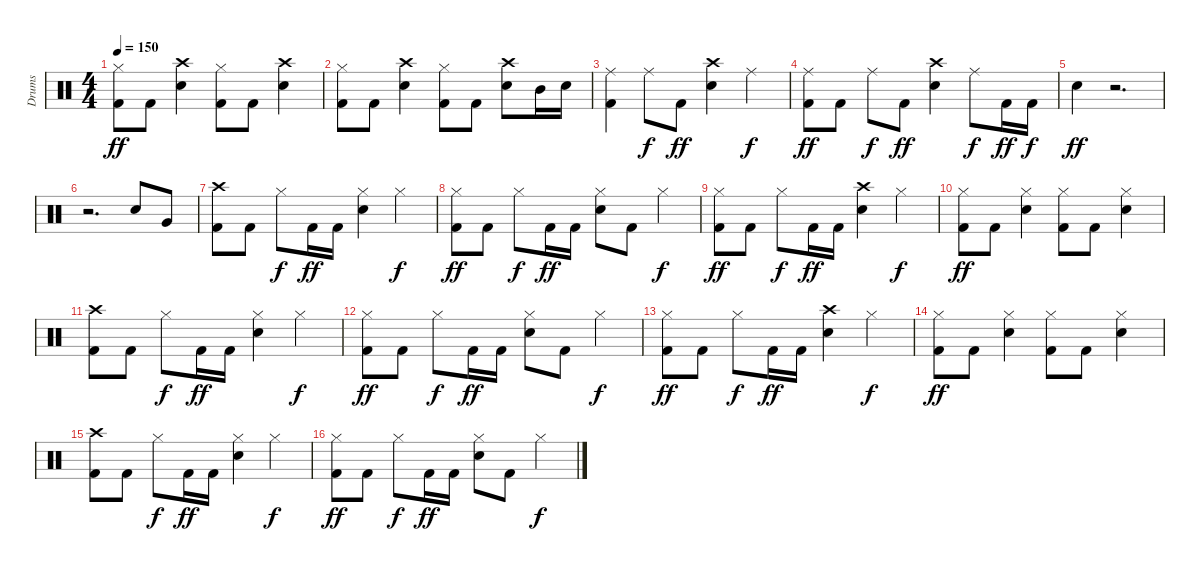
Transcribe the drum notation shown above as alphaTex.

\track ("Drums" "Drums") {instrument percussion}
\staff {score}
\articulation defaults
\ts (4 4)
\tempo 150
\clef neutral
\ks c
("Hi-Hat (closed)" "Kick (hit) 2").8{dy ff} "Kick (hit) 2".8 ("Crash high (hit)" "Snare (hit) 2").4 ("Hi-Hat (closed)" "Kick (hit) 2").8 "Kick (hit) 2".8 ("Crash high (hit)" "Snare (hit) 2").4 |
("Hi-Hat (closed)" "Kick (hit) 2").8 "Kick (hit) 2".8 ("Crash high (hit)" "Snare (hit) 2").4 ("Hi-Hat (closed)" "Kick (hit) 2").8 "Kick (hit) 2".8 ("Crash high (hit)" "Snare (hit) 2").8 "Mid Tom (hit)".16 "Snare (hit) 2".16 |
("Ride (middle)" "Kick (hit) 2").4 "Ride (middle)".8{dy f} "Kick (hit) 2".8{dy ff} ("Crash high (hit)" "Snare (hit) 2").4 "Ride (middle)".4{dy f} |
("Kick (hit) 2" "Ride (middle)").8{dy ff} "Kick (hit) 2".8 "Ride (middle)".8{dy f} "Kick (hit) 2".8{dy ff} ("Crash high (hit)" "Snare (hit) 2").4 "Ride (middle)".8{dy f} "Kick (hit) 2".16{dy ff} "Kick (hit) 2".16{dy f} |
"Snare (hit) 2".4{dy ff} r.2{d} |
r.2{d} "Snare (hit) 2".8 "Very Low Tom (hit)".8 |
("Crash high (hit)" "Kick (hit) 2").8 "Kick (hit) 2".8 "Hi-Hat (closed)".8{dy f} "Kick (hit) 2".16{dy ff} "Kick (hit) 2".16 ("Hi-Hat (closed)" "Snare (hit) 2").4 "Hi-Hat (closed)".4{dy f} |
("Hi-Hat (closed)" "Kick (hit) 2").8{dy ff} "Kick (hit) 2".8 "Hi-Hat (closed)".8{dy f} "Kick (hit) 2".16{dy ff} "Kick (hit) 2".16 ("Hi-Hat (closed)" "Snare (hit) 2").8 "Kick (hit) 2".8 "Hi-Hat (closed)".4{dy f} |
("Hi-Hat (closed)" "Kick (hit) 2").8{dy ff} "Kick (hit) 2".8 "Hi-Hat (closed)".8{dy f} "Kick (hit) 2".16{dy ff} "Kick (hit) 2".16 ("Crash high (hit)" "Snare (hit) 2").4 "Hi-Hat (closed)".4{dy f} |
("Hi-Hat (closed)" "Kick (hit) 2").8{dy ff} "Kick (hit) 2".8 ("Snare (hit) 2" "Hi-Hat (closed)").4 ("Hi-Hat (closed)" "Kick (hit) 2").8 "Kick (hit) 2".8 ("Snare (hit) 2" "Hi-Hat (closed)").4 |
("Crash high (hit)" "Kick (hit) 2").8 "Kick (hit) 2".8 "Hi-Hat (closed)".8{dy f} "Kick (hit) 2".16{dy ff} "Kick (hit) 2".16 ("Hi-Hat (closed)" "Snare (hit) 2").4 "Hi-Hat (closed)".4{dy f} |
("Hi-Hat (closed)" "Kick (hit) 2").8{dy ff} "Kick (hit) 2".8 "Hi-Hat (closed)".8{dy f} "Kick (hit) 2".16{dy ff} "Kick (hit) 2".16 ("Hi-Hat (closed)" "Snare (hit) 2").8 "Kick (hit) 2".8 "Hi-Hat (closed)".4{dy f} |
("Hi-Hat (closed)" "Kick (hit) 2").8{dy ff} "Kick (hit) 2".8 "Hi-Hat (closed)".8{dy f} "Kick (hit) 2".16{dy ff} "Kick (hit) 2".16 ("Crash high (hit)" "Snare (hit) 2").4 "Hi-Hat (closed)".4{dy f} |
("Hi-Hat (closed)" "Kick (hit) 2").8{dy ff} "Kick (hit) 2".8 ("Snare (hit) 2" "Hi-Hat (closed)").4 ("Hi-Hat (closed)" "Kick (hit) 2").8 "Kick (hit) 2".8 ("Snare (hit) 2" "Hi-Hat (closed)").4 |
("Crash high (hit)" "Kick (hit) 2").8 "Kick (hit) 2".8 "Hi-Hat (closed)".8{dy f} "Kick (hit) 2".16{dy ff} "Kick (hit) 2".16 ("Hi-Hat (closed)" "Snare (hit) 2").4 "Hi-Hat (closed)".4{dy f} |
("Hi-Hat (closed)" "Kick (hit) 2").8{dy ff} "Kick (hit) 2".8 "Hi-Hat (closed)".8{dy f} "Kick (hit) 2".16{dy ff} "Kick (hit) 2".16 ("Hi-Hat (closed)" "Snare (hit) 2").8 "Kick (hit) 2".8 "Hi-Hat (closed)".4{dy f}
